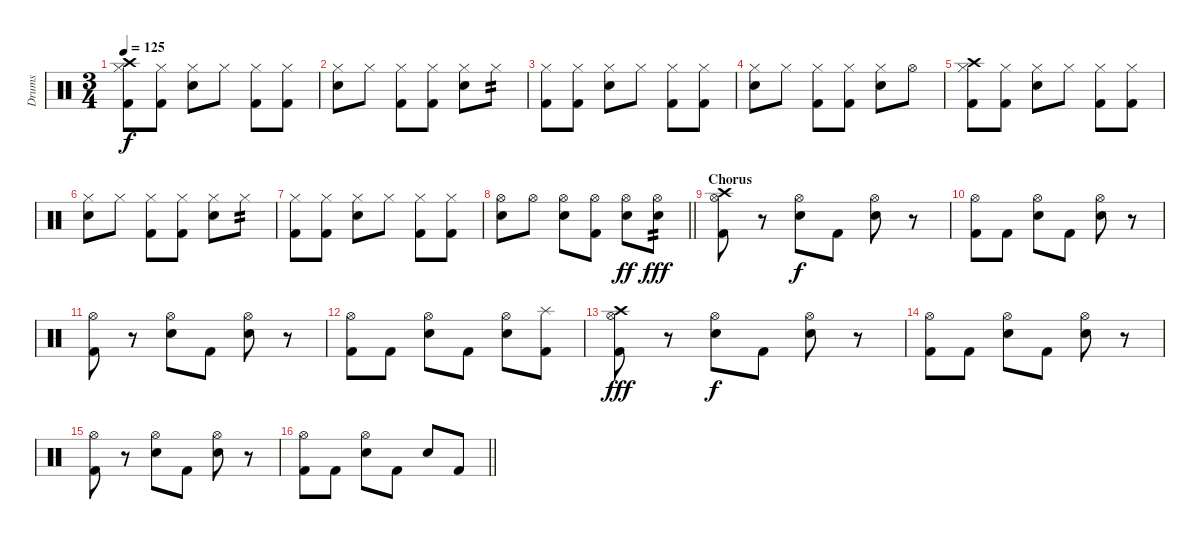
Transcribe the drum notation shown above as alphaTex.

\track ("Drums" "Drums") {instrument percussion}
\staff {score}
\articulation defaults
\ts (3 4)
\tempo 125
\clef neutral
\ks c
("Crash high (hit)" "Hi-Hat (closed)" "Kick (hit) 2").8{dy f} ("Hi-Hat (closed)" "Kick (hit) 2").8 ("Hi-Hat (closed)" "Electric Snare (hit)").8 "Hi-Hat (closed)".8 ("Hi-Hat (closed)" "Kick (hit) 2").8 ("Hi-Hat (closed)" "Kick (hit) 2").8 |
("Hi-Hat (closed)" "Electric Snare (hit)").8 "Hi-Hat (closed)".8 ("Hi-Hat (closed)" "Kick (hit) 2").8 ("Hi-Hat (closed)" "Kick (hit) 2").8 ("Hi-Hat (closed)" "Electric Snare (hit)").8 "Hi-Hat (closed)".8{tp 2} |
("Hi-Hat (closed)" "Kick (hit) 2").8 ("Hi-Hat (closed)" "Kick (hit) 2").8 ("Hi-Hat (closed)" "Electric Snare (hit)").8 "Hi-Hat (closed)".8 ("Hi-Hat (closed)" "Kick (hit) 2").8 ("Hi-Hat (closed)" "Kick (hit) 2").8 |
("Hi-Hat (closed)" "Electric Snare (hit)").8 "Hi-Hat (closed)".8 ("Hi-Hat (closed)" "Kick (hit) 2").8 ("Hi-Hat (closed)" "Kick (hit) 2").8 ("Hi-Hat (closed)" "Electric Snare (hit)").8 "Hi-Hat (open)".8 |
("Crash high (hit)" "Hi-Hat (closed)" "Kick (hit) 2").8 ("Hi-Hat (closed)" "Kick (hit) 2").8 ("Hi-Hat (closed)" "Electric Snare (hit)").8 "Hi-Hat (closed)".8 ("Hi-Hat (closed)" "Kick (hit) 2").8 ("Hi-Hat (closed)" "Kick (hit) 2").8 |
("Hi-Hat (closed)" "Electric Snare (hit)").8 "Hi-Hat (closed)".8 ("Hi-Hat (closed)" "Kick (hit) 2").8 ("Hi-Hat (closed)" "Kick (hit) 2").8 ("Hi-Hat (closed)" "Electric Snare (hit)").8 "Hi-Hat (closed)".8{tp 2} |
("Hi-Hat (closed)" "Kick (hit) 2").8 ("Hi-Hat (closed)" "Kick (hit) 2").8 ("Hi-Hat (closed)" "Electric Snare (hit)").8 "Hi-Hat (closed)".8 ("Hi-Hat (closed)" "Kick (hit) 2").8 ("Hi-Hat (closed)" "Kick (hit) 2").8 |
\barLineRight lightlight
("Hi-Hat (open)" "Electric Snare (hit)").8 "Hi-Hat (open)".8 ("Hi-Hat (open)" "Electric Snare (hit)").8 ("Hi-Hat (open)" "Kick (hit) 2").8 ("Hi-Hat (open)" "Electric Snare (hit)").8{dy ff} ("Hi-Hat (open)" "Electric Snare (hit)").8{tp 2 dy fff} |
\section ("" "Chorus")
("Crash high (hit)" "Hi-Hat (open)" "Kick (hit) 2").8 r.8 ("Hi-Hat (open)" "Electric Snare (hit)").8{dy f} "Kick (hit) 2".8 ("Hi-Hat (open)" "Electric Snare (hit)").8 r.8 |
("Hi-Hat (open)" "Kick (hit) 2").8 "Kick (hit) 2".8 ("Hi-Hat (open)" "Electric Snare (hit)").8 "Kick (hit) 2".8 ("Hi-Hat (open)" "Electric Snare (hit)").8 r.8 |
("Hi-Hat (open)" "Kick (hit) 2").8 r.8 ("Hi-Hat (open)" "Electric Snare (hit)").8 "Kick (hit) 2".8 ("Hi-Hat (open)" "Electric Snare (hit)").8 r.8 |
("Hi-Hat (open)" "Kick (hit) 2").8 "Kick (hit) 2".8 ("Hi-Hat (open)" "Electric Snare (hit)").8 "Kick (hit) 2".8 ("Hi-Hat (open)" "Electric Snare (hit)").8 ("Splash (hit)" "Kick (hit) 2").8 |
("Crash high (hit)" "Hi-Hat (open)" "Kick (hit) 2").8{dy fff} r.8 ("Hi-Hat (open)" "Electric Snare (hit)").8{dy f} "Kick (hit) 2".8 ("Hi-Hat (open)" "Electric Snare (hit)").8 r.8 |
("Hi-Hat (open)" "Kick (hit) 2").8 "Kick (hit) 2".8 ("Hi-Hat (open)" "Electric Snare (hit)").8 "Kick (hit) 2".8 ("Hi-Hat (open)" "Electric Snare (hit)").8 r.8 |
("Hi-Hat (open)" "Kick (hit) 2").8 r.8 ("Hi-Hat (open)" "Electric Snare (hit)").8 "Kick (hit) 2".8 ("Hi-Hat (open)" "Electric Snare (hit)").8 r.8 |
\barLineRight lightlight
("Hi-Hat (open)" "Kick (hit) 2").8 "Kick (hit) 2".8 ("Hi-Hat (open)" "Electric Snare (hit)").8 "Kick (hit) 2".8 "Electric Snare (hit)".8 "Kick (hit) 2".8
